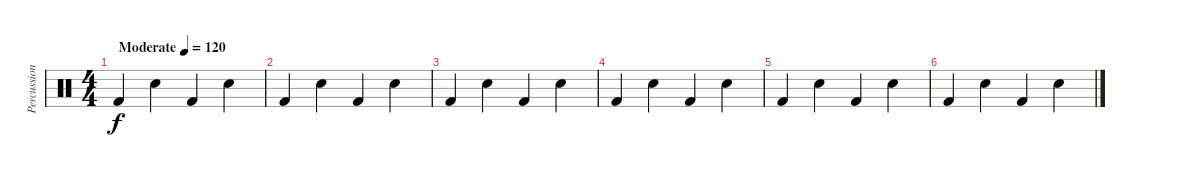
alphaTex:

\track ("Percussion" "Percussion") {mute instrument percussion}
\staff {score}
\articulation defaults
\ts (4 4)
\tempo (120 "Moderate")
\clef neutral
\ks c "Kick (hit) 2".4{dy f} "Snare (hit) 2".4 "Kick (hit) 2".4 "Snare (hit) 2".4
|
"Kick (hit) 2".4 "Snare (hit) 2".4 "Kick (hit) 2".4 "Snare (hit) 2".4 |
"Kick (hit) 2".4 "Snare (hit) 2".4 "Kick (hit) 2".4 "Snare (hit) 2".4 |
"Kick (hit) 2".4 "Snare (hit) 2".4 "Kick (hit) 2".4 "Snare (hit) 2".4 |
"Kick (hit) 2".4 "Snare (hit) 2".4 "Kick (hit) 2".4 "Snare (hit) 2".4 |
"Kick (hit) 2".4 "Snare (hit) 2".4 "Kick (hit) 2".4 "Snare (hit) 2".4
